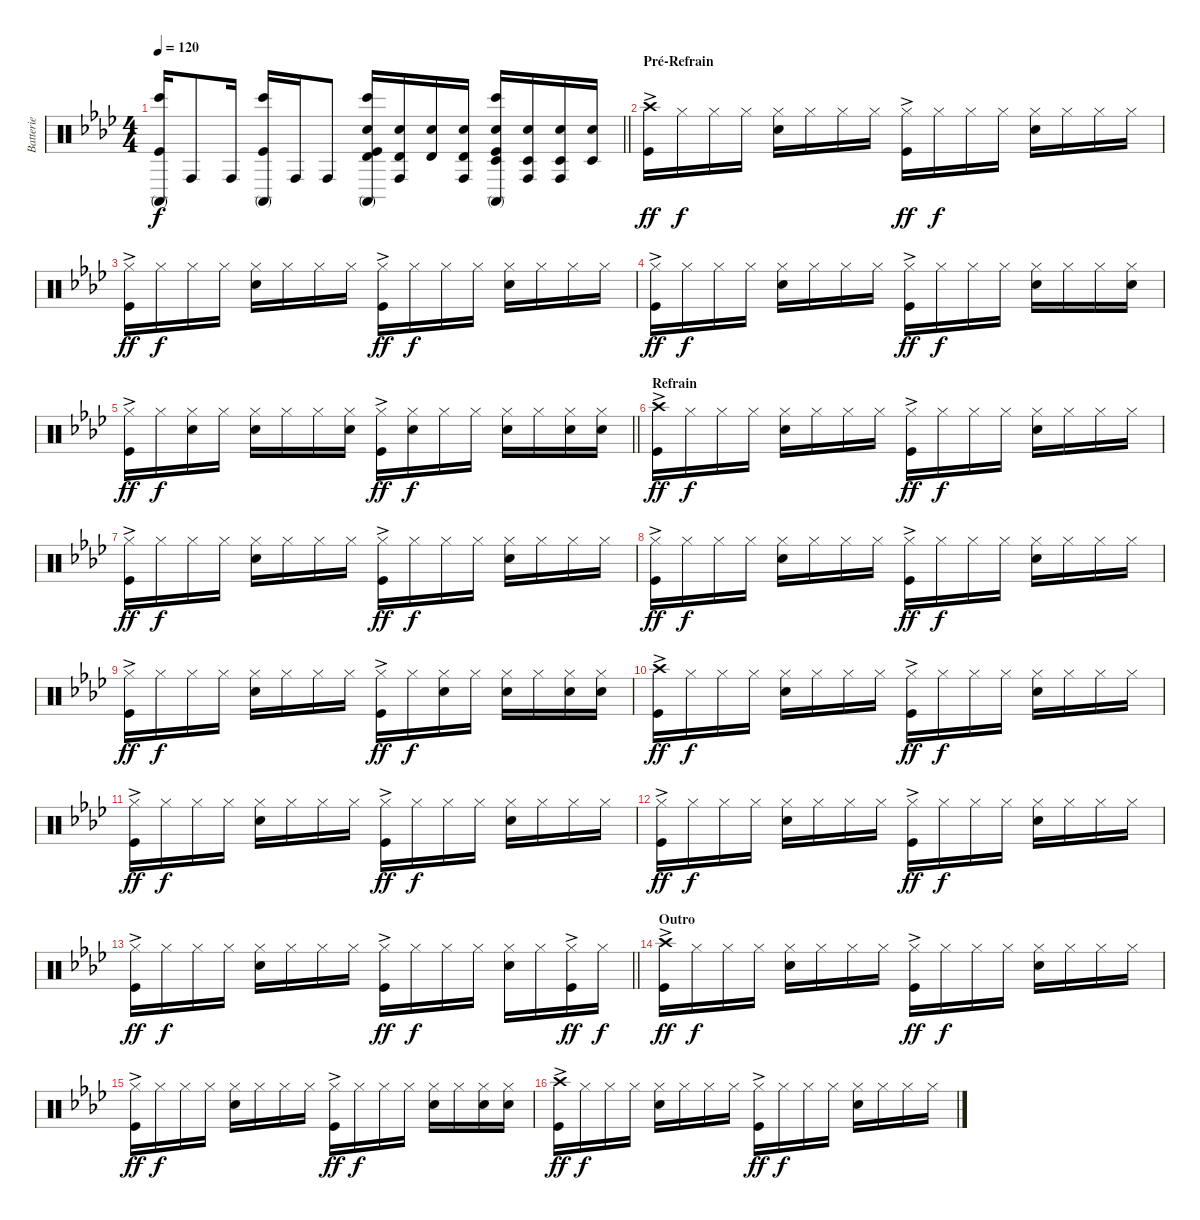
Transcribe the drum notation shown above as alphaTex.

\track ("Batterie" "Batterie") {instrument percussion}
\staff {score}
\articulation defaults
\ts (4 4)
\tempo 120
\clef neutral
\barLineRight lightlight
\ks fminor
("Bongo High (hit)" "Conga high (mute)" "Kick (hit)").16{dy f} "Conga high (hit)".8 "Conga high (hit)".16 ("Bongo High (hit)" "Conga high (mute)" "Kick (hit)").16 "Conga high (hit)".16 "Conga high (hit)".8 ("Bongo High (hit)" "Conga high (mute)" "Snare (hit) 2" "Timbale high (hit)" "Kick (hit)").16 ("Conga high (hit)" "Snare (hit) 2" "Timbale high (hit)").16 ("Snare (hit) 2" "Timbale high (hit)").16 ("Conga high (hit)" "Snare (hit) 2" "Timbale high (hit)").16 ("Bongo High (hit)" "Conga high (mute)" "Snare (hit) 2" "Timbale low (hit)" "Kick (hit)").16 ("Conga high (hit)" "Snare (hit) 2" "Timbale low (hit)").16 ("Conga high (hit)" "Snare (hit) 2" "Timbale low (hit)").16 ("Snare (hit) 2" "Timbale low (hit)").16 |
\section ("" "Pré-Refrain")
("Crash high (hit)" "Kick (hit)"{ac}).16{dy ff} "Hi-Hat (closed)".16{dy f} "Hi-Hat (closed)".16 "Hi-Hat (closed)".16 ("Hi-Hat (closed)" "Snare (hit) 2").16 "Hi-Hat (closed)".16 "Hi-Hat (closed)".16 "Hi-Hat (closed)".16 ("Hi-Hat (closed)" "Kick (hit)"{ac}).16{dy ff} "Hi-Hat (closed)".16{dy f} "Hi-Hat (closed)".16 "Hi-Hat (closed)".16 ("Hi-Hat (closed)" "Snare (hit) 2").16 "Hi-Hat (closed)".16 "Hi-Hat (closed)".16 "Hi-Hat (closed)".16 |
("Hi-Hat (closed)" "Kick (hit)"{ac}).16{dy ff} "Hi-Hat (closed)".16{dy f} "Hi-Hat (closed)".16 "Hi-Hat (closed)".16 ("Hi-Hat (closed)" "Snare (hit) 2").16 "Hi-Hat (closed)".16 "Hi-Hat (closed)".16 "Hi-Hat (closed)".16 ("Hi-Hat (closed)" "Kick (hit)"{ac}).16{dy ff} "Hi-Hat (closed)".16{dy f} "Hi-Hat (closed)".16 "Hi-Hat (closed)".16 ("Hi-Hat (closed)" "Snare (hit) 2").16 "Hi-Hat (closed)".16 "Hi-Hat (closed)".16 "Hi-Hat (closed)".16 |
("Hi-Hat (closed)" "Kick (hit)"{ac}).16{dy ff} "Hi-Hat (closed)".16{dy f} "Hi-Hat (closed)".16 "Hi-Hat (closed)".16 ("Hi-Hat (closed)" "Snare (hit) 2").16 "Hi-Hat (closed)".16 "Hi-Hat (closed)".16 "Hi-Hat (closed)".16 ("Hi-Hat (closed)" "Kick (hit)"{ac}).16{dy ff} "Hi-Hat (closed)".16{dy f} "Hi-Hat (closed)".16 "Hi-Hat (closed)".16 ("Hi-Hat (closed)" "Snare (hit) 2").16 "Hi-Hat (closed)".16 "Hi-Hat (closed)".16 ("Hi-Hat (closed)" "Snare (hit) 2").16 |
\barLineRight lightlight
("Hi-Hat (closed)" "Kick (hit)"{ac}).16{dy ff} "Hi-Hat (closed)".16{dy f} ("Hi-Hat (closed)" "Snare (hit) 2").16 "Hi-Hat (closed)".16 ("Hi-Hat (closed)" "Snare (hit) 2").16 "Hi-Hat (closed)".16 "Hi-Hat (closed)".16 ("Hi-Hat (closed)" "Snare (hit) 2").16 ("Hi-Hat (closed)" "Kick (hit)"{ac}).16{dy ff} ("Hi-Hat (closed)" "Snare (hit) 2").16{dy f} "Hi-Hat (closed)".16 "Hi-Hat (closed)".16 ("Hi-Hat (closed)" "Snare (hit) 2").16 "Hi-Hat (closed)".16 ("Hi-Hat (closed)" "Snare (hit) 2").16 ("Hi-Hat (closed)" "Snare (hit) 2").16 |
\section ("" "Refrain")
("Crash high (hit)" "Kick (hit)"{ac}).16{dy ff} "Hi-Hat (closed)".16{dy f} "Hi-Hat (closed)".16 "Hi-Hat (closed)".16 ("Hi-Hat (closed)" "Snare (hit) 2").16 "Hi-Hat (closed)".16 "Hi-Hat (closed)".16 "Hi-Hat (closed)".16 ("Hi-Hat (closed)" "Kick (hit)"{ac}).16{dy ff} "Hi-Hat (closed)".16{dy f} "Hi-Hat (closed)".16 "Hi-Hat (closed)".16 ("Hi-Hat (closed)" "Snare (hit) 2").16 "Hi-Hat (closed)".16 "Hi-Hat (closed)".16 "Hi-Hat (closed)".16 |
("Hi-Hat (closed)" "Kick (hit)"{ac}).16{dy ff} "Hi-Hat (closed)".16{dy f} "Hi-Hat (closed)".16 "Hi-Hat (closed)".16 ("Hi-Hat (closed)" "Snare (hit) 2").16 "Hi-Hat (closed)".16 "Hi-Hat (closed)".16 "Hi-Hat (closed)".16 ("Hi-Hat (closed)" "Kick (hit)"{ac}).16{dy ff} "Hi-Hat (closed)".16{dy f} "Hi-Hat (closed)".16 "Hi-Hat (closed)".16 ("Hi-Hat (closed)" "Snare (hit) 2").16 "Hi-Hat (closed)".16 "Hi-Hat (closed)".16 "Hi-Hat (closed)".16 |
("Hi-Hat (closed)" "Kick (hit)"{ac}).16{dy ff} "Hi-Hat (closed)".16{dy f} "Hi-Hat (closed)".16 "Hi-Hat (closed)".16 ("Hi-Hat (closed)" "Snare (hit) 2").16 "Hi-Hat (closed)".16 "Hi-Hat (closed)".16 "Hi-Hat (closed)".16 ("Hi-Hat (closed)" "Kick (hit)"{ac}).16{dy ff} "Hi-Hat (closed)".16{dy f} "Hi-Hat (closed)".16 "Hi-Hat (closed)".16 ("Hi-Hat (closed)" "Snare (hit) 2").16 "Hi-Hat (closed)".16 "Hi-Hat (closed)".16 "Hi-Hat (closed)".16 |
("Hi-Hat (closed)" "Kick (hit)"{ac}).16{dy ff} "Hi-Hat (closed)".16{dy f} "Hi-Hat (closed)".16 "Hi-Hat (closed)".16 ("Hi-Hat (closed)" "Snare (hit) 2").16 "Hi-Hat (closed)".16 "Hi-Hat (closed)".16 "Hi-Hat (closed)".16 ("Hi-Hat (closed)" "Kick (hit)"{ac}).16{dy ff} "Hi-Hat (closed)".16{dy f} ("Hi-Hat (closed)" "Snare (hit) 2").16 "Hi-Hat (closed)".16 ("Hi-Hat (closed)" "Snare (hit) 2").16 "Hi-Hat (closed)".16 ("Hi-Hat (closed)" "Snare (hit) 2").16 ("Hi-Hat (closed)" "Snare (hit) 2").16 |
("Crash high (hit)" "Kick (hit)"{ac}).16{dy ff} "Hi-Hat (closed)".16{dy f} "Hi-Hat (closed)".16 "Hi-Hat (closed)".16 ("Hi-Hat (closed)" "Snare (hit) 2").16 "Hi-Hat (closed)".16 "Hi-Hat (closed)".16 "Hi-Hat (closed)".16 ("Hi-Hat (closed)" "Kick (hit)"{ac}).16{dy ff} "Hi-Hat (closed)".16{dy f} "Hi-Hat (closed)".16 "Hi-Hat (closed)".16 ("Hi-Hat (closed)" "Snare (hit) 2").16 "Hi-Hat (closed)".16 "Hi-Hat (closed)".16 "Hi-Hat (closed)".16 |
("Hi-Hat (closed)" "Kick (hit)"{ac}).16{dy ff} "Hi-Hat (closed)".16{dy f} "Hi-Hat (closed)".16 "Hi-Hat (closed)".16 ("Hi-Hat (closed)" "Snare (hit) 2").16 "Hi-Hat (closed)".16 "Hi-Hat (closed)".16 "Hi-Hat (closed)".16 ("Hi-Hat (closed)" "Kick (hit)"{ac}).16{dy ff} "Hi-Hat (closed)".16{dy f} "Hi-Hat (closed)".16 "Hi-Hat (closed)".16 ("Hi-Hat (closed)" "Snare (hit) 2").16 "Hi-Hat (closed)".16 "Hi-Hat (closed)".16 "Hi-Hat (closed)".16 |
("Hi-Hat (closed)" "Kick (hit)"{ac}).16{dy ff} "Hi-Hat (closed)".16{dy f} "Hi-Hat (closed)".16 "Hi-Hat (closed)".16 ("Hi-Hat (closed)" "Snare (hit) 2").16 "Hi-Hat (closed)".16 "Hi-Hat (closed)".16 "Hi-Hat (closed)".16 ("Hi-Hat (closed)" "Kick (hit)"{ac}).16{dy ff} "Hi-Hat (closed)".16{dy f} "Hi-Hat (closed)".16 "Hi-Hat (closed)".16 ("Hi-Hat (closed)" "Snare (hit) 2").16 "Hi-Hat (closed)".16 "Hi-Hat (closed)".16 "Hi-Hat (closed)".16 |
\barLineRight lightlight
("Hi-Hat (closed)" "Kick (hit)"{ac}).16{dy ff} "Hi-Hat (closed)".16{dy f} "Hi-Hat (closed)".16 "Hi-Hat (closed)".16 ("Hi-Hat (closed)" "Snare (hit) 2").16 "Hi-Hat (closed)".16 "Hi-Hat (closed)".16 "Hi-Hat (closed)".16 ("Hi-Hat (closed)" "Kick (hit)"{ac}).16{dy ff} "Hi-Hat (closed)".16{dy f} "Hi-Hat (closed)".16 "Hi-Hat (closed)".16 ("Hi-Hat (closed)" "Snare (hit) 2").16 "Hi-Hat (closed)".16 ("Hi-Hat (closed)" "Kick (hit)"{ac}).16{dy ff} "Hi-Hat (closed)".16{dy f} |
\section ("" "Outro")
("Crash high (hit)" "Kick (hit)"{ac}).16{dy ff} "Hi-Hat (closed)".16{dy f} "Hi-Hat (closed)".16 "Hi-Hat (closed)".16 ("Hi-Hat (closed)" "Snare (hit) 2").16 "Hi-Hat (closed)".16 "Hi-Hat (closed)".16 "Hi-Hat (closed)".16 ("Hi-Hat (closed)" "Kick (hit)"{ac}).16{dy ff} "Hi-Hat (closed)".16{dy f} "Hi-Hat (closed)".16 "Hi-Hat (closed)".16 ("Hi-Hat (closed)" "Snare (hit) 2").16 "Hi-Hat (closed)".16 "Hi-Hat (closed)".16 "Hi-Hat (closed)".16 |
("Hi-Hat (closed)" "Kick (hit)"{ac}).16{dy ff} "Hi-Hat (closed)".16{dy f} "Hi-Hat (closed)".16 "Hi-Hat (closed)".16 ("Hi-Hat (closed)" "Snare (hit) 2").16 "Hi-Hat (closed)".16 "Hi-Hat (closed)".16 "Hi-Hat (closed)".16 ("Hi-Hat (closed)" "Kick (hit)"{ac}).16{dy ff} "Hi-Hat (closed)".16{dy f} "Hi-Hat (closed)".16 "Hi-Hat (closed)".16 ("Hi-Hat (closed)" "Snare (hit) 2").16 "Hi-Hat (closed)".16 ("Hi-Hat (closed)" "Snare (hit) 2").16 ("Hi-Hat (closed)" "Snare (hit) 2").16 |
("Crash high (hit)" "Kick (hit)"{ac}).16{dy ff} "Hi-Hat (closed)".16{dy f} "Hi-Hat (closed)".16 "Hi-Hat (closed)".16 ("Hi-Hat (closed)" "Snare (hit) 2").16 "Hi-Hat (closed)".16 "Hi-Hat (closed)".16 "Hi-Hat (closed)".16 ("Hi-Hat (closed)" "Kick (hit)"{ac}).16{dy ff} "Hi-Hat (closed)".16{dy f} "Hi-Hat (closed)".16 "Hi-Hat (closed)".16 ("Hi-Hat (closed)" "Snare (hit) 2").16 "Hi-Hat (closed)".16 "Hi-Hat (closed)".16 "Hi-Hat (closed)".16
